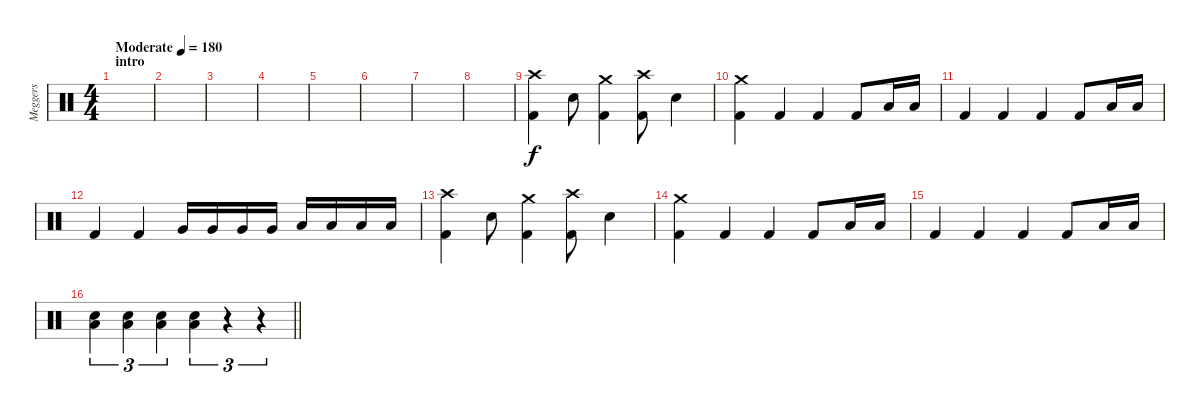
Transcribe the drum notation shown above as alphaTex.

\track ("Meggers" "Meggers") {instrument percussion}
\staff {score}
\articulation defaults
\ts (4 4)
\section ("" "intro")
\tempo (180 "Moderate")
\clef neutral
\ks c
|
|
|
|
|
|
|
|
("Crash high (hit)" "Kick (hit) 2").4 "Snare (hit) 2".8 ("Crash medium (hit)" "Kick (hit) 2").4 ("Crash high (hit)" "Kick (hit) 2").8 "Snare (hit) 2".4 |
("Crash medium (hit)" "Kick (hit) 2").4 "Kick (hit) 2".4 "Kick (hit) 2".4 "Kick (hit) 2".8 "Low Floor Tom (hit)".16 "Low Floor Tom (hit)".16 |
"Kick (hit) 2".4 "Kick (hit) 2".4 "Kick (hit) 2".4 "Kick (hit) 2".8 "Low Floor Tom (hit)".16 "Low Floor Tom (hit)".16 |
"Kick (hit) 2".4 "Kick (hit) 2".4 "Very Low Tom (hit)".16 "Very Low Tom (hit)".16 "Very Low Tom (hit)".16 "Very Low Tom (hit)".16 "Low Floor Tom (hit)".16 "Low Floor Tom (hit)".16 "Low Floor Tom (hit)".16 "Low Floor Tom (hit)".16 |
("Crash high (hit)" "Kick (hit) 2").4 "Snare (hit) 2".8 ("Crash medium (hit)" "Kick (hit) 2").4 ("Crash high (hit)" "Kick (hit) 2").8 "Snare (hit) 2".4 |
("Crash medium (hit)" "Kick (hit) 2").4 "Kick (hit) 2".4 "Kick (hit) 2".4 "Kick (hit) 2".8 "Low Floor Tom (hit)".16 "Low Floor Tom (hit)".16 |
"Kick (hit) 2".4 "Kick (hit) 2".4 "Kick (hit) 2".4 "Kick (hit) 2".8 "Low Floor Tom (hit)".16 "Low Floor Tom (hit)".16 |
\barLineRight lightlight
("Snare (hit) 2" "Low Floor Tom (hit)").4{tu (3 2)} ("Snare (hit) 2" "Low Floor Tom (hit)").4{tu (3 2)} ("Snare (hit) 2" "Low Floor Tom (hit)").4{tu (3 2)} ("Snare (hit) 2" "Low Floor Tom (hit)").4{tu (3 2)} r.4{tu (3 2)} r.4{tu (3 2)}
